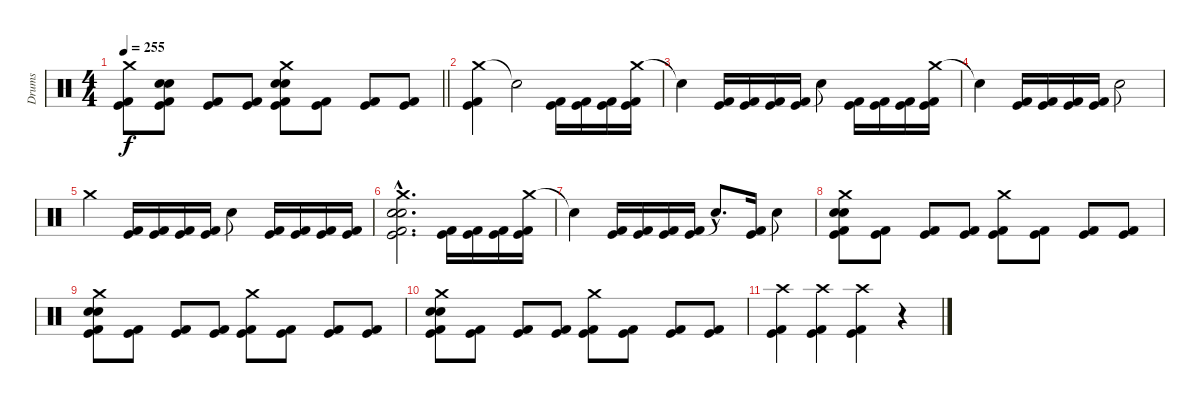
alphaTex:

\track ("Drums" "Drums") {instrument percussion}
\staff {score}
\articulation defaults
\ts (4 4)
\tempo 255
\clef neutral
\barLineRight lightlight
\ks c
("Crash medium (hit)" "Kick (hit) 2" "Kick (hit)").8{dy f} ("Electric Snare (hit)" "Electric Snare (hit)" "Kick (hit) 2" "Kick (hit)").8 ("Kick (hit) 2" "Kick (hit)").8 ("Kick (hit) 2" "Kick (hit)").8 ("Crash medium (hit)" "Electric Snare (hit)" "Electric Snare (hit)" "Kick (hit) 2" "Kick (hit)").8 ("Kick (hit) 2" "Kick (hit)").8 ("Kick (hit) 2" "Kick (hit)").8 ("Kick (hit) 2" "Kick (hit)").8 |
("Crash medium (hit)" "Kick (hit) 2" "Kick (hit)").4 "Snare (hit)"{t}.2 ("Kick (hit) 2" "Kick (hit)").16 ("Kick (hit) 2" "Kick (hit)").16 ("Kick (hit) 2" "Kick (hit)").16 ("Crash medium (hit)" "Kick (hit) 2" "Kick (hit)").16 |
"Snare (hit)"{t}.4 ("Kick (hit) 2" "Kick (hit)").16 ("Kick (hit) 2" "Kick (hit)").16 ("Kick (hit) 2" "Kick (hit)").16 ("Kick (hit) 2" "Kick (hit)").16 "Snare (hit)"{t}.4 ("Kick (hit) 2" "Kick (hit)").16 ("Kick (hit) 2" "Kick (hit)").16 ("Kick (hit) 2" "Kick (hit)").16 ("Crash medium (hit)" "Kick (hit) 2" "Kick (hit)").16 |
"Snare (hit)"{t}.4 ("Kick (hit) 2" "Kick (hit)").16 ("Kick (hit) 2" "Kick (hit)").16 ("Kick (hit) 2" "Kick (hit)").16 ("Kick (hit) 2" "Kick (hit)").16 "Snare (hit)"{t}.2 |
"Crash medium (hit)".4 ("Kick (hit) 2" "Kick (hit)").16 ("Kick (hit) 2" "Kick (hit)").16 ("Kick (hit) 2" "Kick (hit)").16 ("Kick (hit) 2" "Kick (hit)").16 "Snare (hit)"{t}.4 ("Kick (hit) 2" "Kick (hit)").16 ("Kick (hit) 2" "Kick (hit)").16 ("Kick (hit) 2" "Kick (hit)").16 ("Kick (hit) 2" "Kick (hit)").16 |
("Crash medium (hit)"{hac} "Electric Snare (hit)"{hac} "Electric Snare (hit)"{hac} "Kick (hit) 2"{hac} "Kick (hit)"{hac}).2{d} ("Kick (hit) 2" "Kick (hit)").16 ("Kick (hit) 2" "Kick (hit)").16 ("Kick (hit) 2" "Kick (hit)").16 ("Crash medium (hit)" "Kick (hit) 2" "Kick (hit)").16 |
"Snare (hit)"{t}.4 ("Kick (hit) 2" "Kick (hit)").16 ("Kick (hit) 2" "Kick (hit)").16 ("Kick (hit) 2" "Kick (hit)").16 ("Kick (hit) 2" "Kick (hit)").16 "Snare (hit)"{hac t}.8{d} ("Kick (hit) 2" "Kick (hit)").16 "Snare (hit)"{t}.4 |
("Crash medium (hit)" "Electric Snare (hit)" "Electric Snare (hit)" "Kick (hit) 2" "Kick (hit)").8 ("Kick (hit) 2" "Kick (hit)").8 ("Kick (hit) 2" "Kick (hit)").8 ("Kick (hit) 2" "Kick (hit)").8 ("Crash medium (hit)" "Kick (hit) 2" "Kick (hit)").8 ("Kick (hit) 2" "Kick (hit)").8 ("Kick (hit) 2" "Kick (hit)").8 ("Kick (hit) 2" "Kick (hit)").8 |
("Crash medium (hit)" "Electric Snare (hit)" "Electric Snare (hit)" "Kick (hit) 2" "Kick (hit)").8 ("Kick (hit) 2" "Kick (hit)").8 ("Kick (hit) 2" "Kick (hit)").8 ("Kick (hit) 2" "Kick (hit)").8 ("Crash medium (hit)" "Kick (hit) 2" "Kick (hit)").8 ("Kick (hit) 2" "Kick (hit)").8 ("Kick (hit) 2" "Kick (hit)").8 ("Kick (hit) 2" "Kick (hit)").8 |
("Crash medium (hit)" "Electric Snare (hit)" "Electric Snare (hit)" "Kick (hit) 2" "Kick (hit)").8 ("Kick (hit) 2" "Kick (hit)").8 ("Kick (hit) 2" "Kick (hit)").8 ("Kick (hit) 2" "Kick (hit)").8 ("Crash medium (hit)" "Kick (hit) 2" "Kick (hit)").8 ("Kick (hit) 2" "Kick (hit)").8 ("Kick (hit) 2" "Kick (hit)").8 ("Kick (hit) 2" "Kick (hit)").8 |
("Crash high (hit)" "Kick (hit) 2" "Kick (hit)").4 ("Crash high (hit)" "Kick (hit) 2" "Kick (hit)").4 ("Crash high (hit)" "Kick (hit) 2" "Kick (hit)").4 r.4
